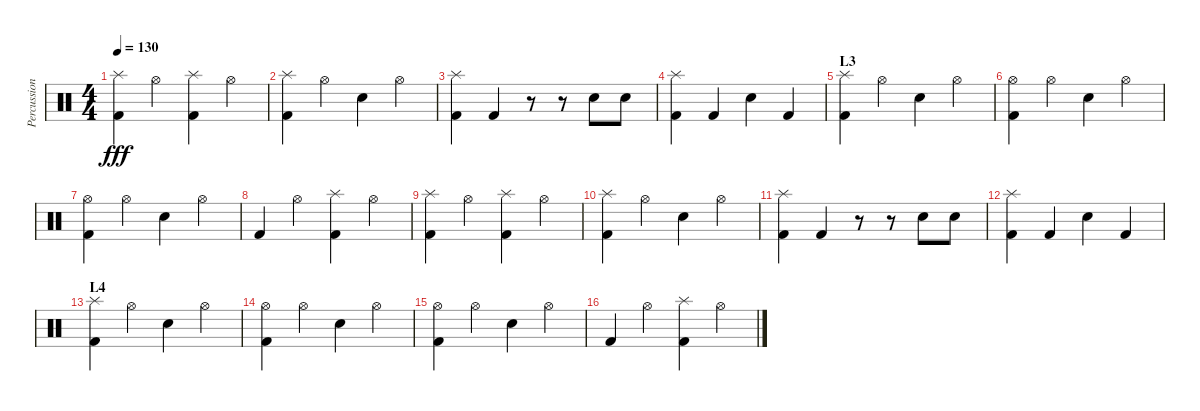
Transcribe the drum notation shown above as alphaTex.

\track ("Percussion" "Percussion") {instrument percussion}
\staff {score}
\articulation defaults
\ts (4 4)
\tempo 130
\clef neutral
\ks c
("Kick (hit) 2" "Splash (hit)").4{dy fff} "Hi-Hat (open)".4 ("Kick (hit) 2" "Splash (hit)").4 "Hi-Hat (open)".4 |
("Kick (hit) 2" "Splash (hit)").4 "Hi-Hat (open)".4 "Electric Snare (hit)".4 "Hi-Hat (open)".4 |
("Kick (hit) 2" "Splash (hit)").4 "Kick (hit) 2".4 r.8 r.8 "Electric Snare (hit)".8 "Electric Snare (hit)".8 |
("Kick (hit) 2" "Splash (hit)").4 "Kick (hit) 2".4 "Electric Snare (hit)".4 "Kick (hit) 2".4 |
\section ("" "L3")
("Kick (hit) 2" "Splash (hit)").4 "Hi-Hat (open)".4 "Electric Snare (hit)".4 "Hi-Hat (open)".4 |
("Kick (hit) 2" "Hi-Hat (open)").4 "Hi-Hat (open)".4 "Electric Snare (hit)".4 "Hi-Hat (open)".4 |
("Kick (hit) 2" "Hi-Hat (open)").4 "Hi-Hat (open)".4 "Electric Snare (hit)".4 "Hi-Hat (open)".4 |
"Kick (hit) 2".4 "Hi-Hat (open)".4 ("Splash (hit)" "Kick (hit) 2").4 "Hi-Hat (open)".4 |
("Kick (hit) 2" "Splash (hit)").4 "Hi-Hat (open)".4 ("Kick (hit) 2" "Splash (hit)").4 "Hi-Hat (open)".4 |
("Kick (hit) 2" "Splash (hit)").4 "Hi-Hat (open)".4 "Electric Snare (hit)".4 "Hi-Hat (open)".4 |
("Kick (hit) 2" "Splash (hit)").4 "Kick (hit) 2".4 r.8 r.8 "Electric Snare (hit)".8 "Electric Snare (hit)".8 |
("Kick (hit) 2" "Splash (hit)").4 "Kick (hit) 2".4 "Electric Snare (hit)".4 "Kick (hit) 2".4 |
\section ("" "L4")
("Kick (hit) 2" "Splash (hit)").4 "Hi-Hat (open)".4 "Electric Snare (hit)".4 "Hi-Hat (open)".4 |
("Kick (hit) 2" "Hi-Hat (open)").4 "Hi-Hat (open)".4 "Electric Snare (hit)".4 "Hi-Hat (open)".4 |
("Kick (hit) 2" "Hi-Hat (open)").4 "Hi-Hat (open)".4 "Electric Snare (hit)".4 "Hi-Hat (open)".4 |
"Kick (hit) 2".4 "Hi-Hat (open)".4 ("Splash (hit)" "Kick (hit) 2").4 "Hi-Hat (open)".4
